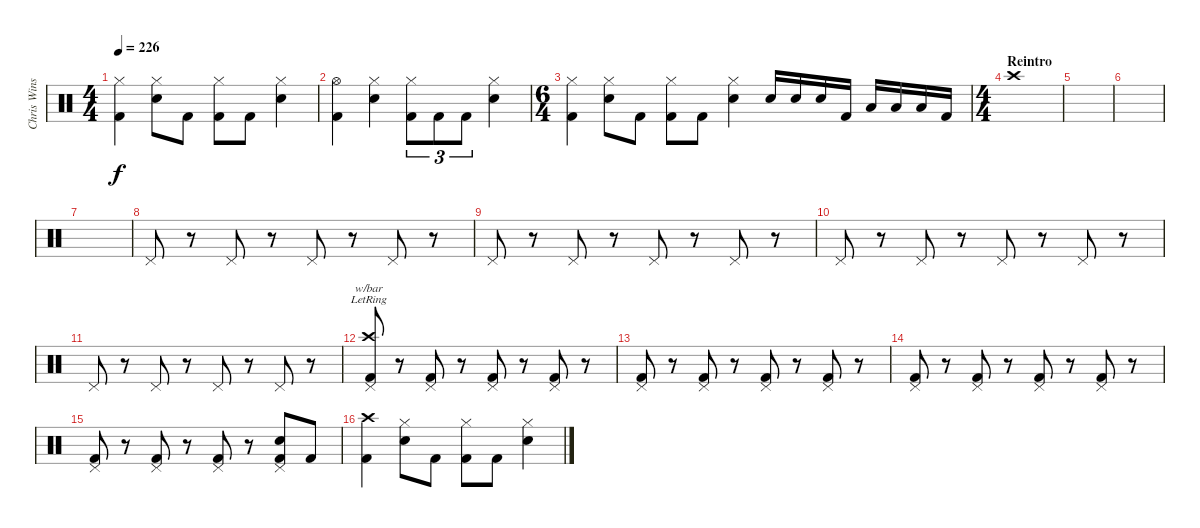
\track ("Chris Winship (Drums)" "Chris Wins") {instrument percussion}
\staff {score}
\articulation defaults
\ts (4 4)
\tempo 226
\clef neutral
\ks c
("Hi-Hat (closed)" "Kick (hit) 2").4{dy f} ("Hi-Hat (closed)" "Electric Snare (hit)").8 "Kick (hit) 2".8 ("Hi-Hat (closed)" "Kick (hit) 2").8 "Kick (hit) 2".8 ("Hi-Hat (closed)" "Electric Snare (hit)").4 |
("Hi-Hat (open)" "Kick (hit) 2").4 ("Hi-Hat (closed)" "Electric Snare (hit)").4 ("Hi-Hat (closed)" "Kick (hit) 2").8{tu (3 2)} "Kick (hit) 2".8{tu (3 2)} "Kick (hit) 2".8{tu (3 2)} ("Hi-Hat (closed)" "Electric Snare (hit)").4 |
\ts (6 4)
("Hi-Hat (closed)" "Kick (hit) 2").4 ("Hi-Hat (closed)" "Electric Snare (hit)").8 "Kick (hit) 2".8 ("Hi-Hat (closed)" "Kick (hit) 2").8 "Kick (hit) 2".8 ("Hi-Hat (closed)" "Electric Snare (hit)").4 "Electric Snare (hit)".16 "Electric Snare (hit)".16 "Electric Snare (hit)".16 "Kick (hit) 2".16 "Low Floor Tom (hit)".16 "Low Floor Tom (hit)".16 "Low Floor Tom (hit)".16 "Kick (hit) 2".16 |
\ts (4 4)
\section ("" "Reintro")
"Crash high (hit)".1 |
|
|
|
"Pedal Hi-Hat (hit)".8 r.8 "Pedal Hi-Hat (hit)".8 r.8 "Pedal Hi-Hat (hit)".8 r.8 "Pedal Hi-Hat (hit)".8 r.8 |
"Pedal Hi-Hat (hit)".8 r.8 "Pedal Hi-Hat (hit)".8 r.8 "Pedal Hi-Hat (hit)".8 r.8 "Pedal Hi-Hat (hit)".8 r.8 |
"Pedal Hi-Hat (hit)".8 r.8 "Pedal Hi-Hat (hit)".8 r.8 "Pedal Hi-Hat (hit)".8 r.8 "Pedal Hi-Hat (hit)".8 r.8 |
"Pedal Hi-Hat (hit)".8 r.8 "Pedal Hi-Hat (hit)".8 r.8 "Pedal Hi-Hat (hit)".8 r.8 "Pedal Hi-Hat (hit)".8 r.8 |
("Crash high (hit)"{lr} "Pedal Hi-Hat (hit)" "Kick (hit) 2").8{tbe (custom default 0 -24 45 -24 60 0)} r.8 ("Pedal Hi-Hat (hit)" "Kick (hit) 2").8 r.8 ("Pedal Hi-Hat (hit)" "Kick (hit) 2").8 r.8 ("Pedal Hi-Hat (hit)" "Kick (hit) 2").8 r.8 |
("Pedal Hi-Hat (hit)" "Kick (hit) 2").8 r.8 ("Pedal Hi-Hat (hit)" "Kick (hit) 2").8 r.8 ("Pedal Hi-Hat (hit)" "Kick (hit) 2").8 r.8 ("Pedal Hi-Hat (hit)" "Kick (hit) 2").8 r.8 |
("Pedal Hi-Hat (hit)" "Kick (hit) 2").8 r.8 ("Pedal Hi-Hat (hit)" "Kick (hit) 2").8 r.8 ("Pedal Hi-Hat (hit)" "Kick (hit) 2").8 r.8 ("Pedal Hi-Hat (hit)" "Kick (hit) 2").8 r.8 |
("Pedal Hi-Hat (hit)" "Kick (hit) 2").8 r.8 ("Pedal Hi-Hat (hit)" "Kick (hit) 2").8 r.8 ("Pedal Hi-Hat (hit)" "Kick (hit) 2").8 r.8 ("Pedal Hi-Hat (hit)" "Electric Snare (hit)" "Kick (hit) 2").8 "Kick (hit) 2".8 |
("Crash high (hit)" "Kick (hit) 2").4 ("Hi-Hat (closed)" "Electric Snare (hit)").8 "Kick (hit) 2".8 ("Hi-Hat (closed)" "Kick (hit) 2").8 "Kick (hit) 2".8 ("Hi-Hat (closed)" "Electric Snare (hit)").4
